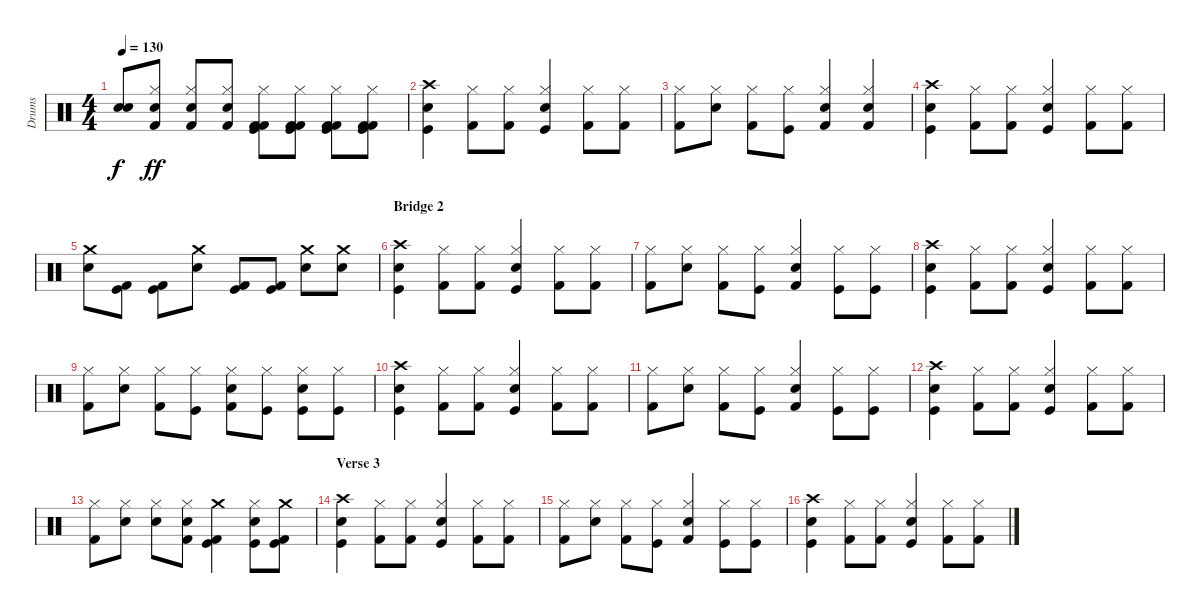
\track ("Drums" "Drums") {instrument percussion}
\staff {score}
\articulation defaults
\ts (4 4)
\tempo 130
\clef neutral
\ks c
("Snare (hit)"{t} "Snare (hit)"{t}).8{dy f} ("Hi-Hat (closed)" "Snare (hit) 2" "Kick (hit) 2").8{dy ff} ("Hi-Hat (closed)" "Snare (hit) 2" "Kick (hit) 2").8 ("Hi-Hat (closed)" "Snare (hit) 2" "Kick (hit) 2").8 ("Hi-Hat (closed)" "Kick (hit) 2" "Kick (hit) 2" "Kick (hit)").8 ("Hi-Hat (closed)" "Kick (hit) 2" "Kick (hit) 2" "Kick (hit)").8 ("Hi-Hat (closed)" "Kick (hit) 2" "Kick (hit) 2" "Kick (hit)").8 ("Hi-Hat (closed)" "Kick (hit) 2" "Kick (hit) 2" "Kick (hit)").8 |
("Crash high (hit)" "Snare (hit) 2" "Kick (hit)").4 ("Hi-Hat (closed)" "Kick (hit) 2").8 ("Hi-Hat (closed)" "Kick (hit) 2").8 ("Hi-Hat (closed)" "Snare (hit) 2" "Kick (hit)").4 ("Hi-Hat (closed)" "Kick (hit) 2").8 ("Hi-Hat (closed)" "Kick (hit) 2").8 |
("Hi-Hat (closed)" "Kick (hit) 2").8 ("Hi-Hat (closed)" "Snare (hit) 2").8 ("Hi-Hat (closed)" "Kick (hit) 2").8 ("Hi-Hat (closed)" "Kick (hit)").8 ("Hi-Hat (closed)" "Kick (hit) 2" "Snare (hit) 2").4 ("Hi-Hat (closed)" "Kick (hit) 2" "Snare (hit) 2").4 |
("Crash high (hit)" "Snare (hit) 2" "Kick (hit)").4 ("Hi-Hat (closed)" "Kick (hit) 2").8 ("Hi-Hat (closed)" "Kick (hit) 2").8 ("Hi-Hat (closed)" "Snare (hit) 2" "Kick (hit)").4 ("Hi-Hat (closed)" "Kick (hit) 2").8 ("Hi-Hat (closed)" "Kick (hit) 2").8 |
("Crash medium (hit)" "Snare (hit) 2").8 ("Kick (hit) 2" "Kick (hit)").8 ("Kick (hit) 2" "Kick (hit)").8 ("Crash medium (hit)" "Snare (hit) 2").8 ("Kick (hit) 2" "Kick (hit)").8 ("Kick (hit) 2" "Kick (hit)").8 ("Crash medium (hit)" "Snare (hit) 2").8 ("Crash medium (hit)" "Snare (hit) 2").8 |
\section ("" "Bridge 2")
("Crash high (hit)" "Snare (hit) 2" "Kick (hit)").4 ("Hi-Hat (closed)" "Kick (hit) 2").8 ("Hi-Hat (closed)" "Kick (hit) 2").8 ("Hi-Hat (closed)" "Snare (hit) 2" "Kick (hit)").4 ("Hi-Hat (closed)" "Kick (hit) 2").8 ("Hi-Hat (closed)" "Kick (hit) 2").8 |
("Hi-Hat (closed)" "Kick (hit) 2").8 ("Hi-Hat (closed)" "Snare (hit) 2").8 ("Hi-Hat (closed)" "Kick (hit) 2").8 ("Hi-Hat (closed)" "Kick (hit)").8 ("Hi-Hat (closed)" "Kick (hit) 2" "Snare (hit) 2").4 ("Hi-Hat (closed)" "Kick (hit)").8 ("Hi-Hat (closed)" "Kick (hit)").8 |
("Crash high (hit)" "Snare (hit) 2" "Kick (hit)").4 ("Hi-Hat (closed)" "Kick (hit) 2").8 ("Hi-Hat (closed)" "Kick (hit) 2").8 ("Hi-Hat (closed)" "Snare (hit) 2" "Kick (hit)").4 ("Hi-Hat (closed)" "Kick (hit) 2").8 ("Hi-Hat (closed)" "Kick (hit) 2").8 |
("Hi-Hat (closed)" "Kick (hit) 2").8 ("Hi-Hat (closed)" "Snare (hit) 2").8 ("Hi-Hat (closed)" "Kick (hit) 2").8 ("Hi-Hat (closed)" "Kick (hit)").8 ("Hi-Hat (closed)" "Kick (hit) 2" "Snare (hit) 2").8 ("Hi-Hat (closed)" "Kick (hit)").8 ("Hi-Hat (closed)" "Kick (hit)" "Snare (hit) 2").8 ("Hi-Hat (closed)" "Kick (hit)").8 |
("Crash high (hit)" "Snare (hit) 2" "Kick (hit)").4 ("Hi-Hat (closed)" "Kick (hit) 2").8 ("Hi-Hat (closed)" "Kick (hit) 2").8 ("Hi-Hat (closed)" "Snare (hit) 2" "Kick (hit)").4 ("Hi-Hat (closed)" "Kick (hit) 2").8 ("Hi-Hat (closed)" "Kick (hit) 2").8 |
("Hi-Hat (closed)" "Kick (hit) 2").8 ("Hi-Hat (closed)" "Snare (hit) 2").8 ("Hi-Hat (closed)" "Kick (hit) 2").8 ("Hi-Hat (closed)" "Kick (hit)").8 ("Hi-Hat (closed)" "Kick (hit) 2" "Snare (hit) 2").4 ("Hi-Hat (closed)" "Kick (hit)").8 ("Hi-Hat (closed)" "Kick (hit)").8 |
("Crash high (hit)" "Snare (hit) 2" "Kick (hit)").4 ("Hi-Hat (closed)" "Kick (hit) 2").8 ("Hi-Hat (closed)" "Kick (hit) 2").8 ("Hi-Hat (closed)" "Snare (hit) 2" "Kick (hit)").4 ("Hi-Hat (closed)" "Kick (hit) 2").8 ("Hi-Hat (closed)" "Kick (hit) 2").8 |
("Hi-Hat (closed)" "Kick (hit) 2").8 ("Hi-Hat (closed)" "Snare (hit) 2").8 ("Hi-Hat (closed)" "Snare (hit) 2").8 ("Hi-Hat (closed)" "Kick (hit) 2" "Snare (hit) 2").8 ("Crash medium (hit)" "Kick (hit)" "Kick (hit) 2").4 ("Hi-Hat (closed)" "Kick (hit)" "Snare (hit) 2").8 ("Crash medium (hit)" "Kick (hit)" "Kick (hit) 2").8 |
\section ("" "Verse 3")
("Crash high (hit)" "Snare (hit) 2" "Kick (hit)").4 ("Hi-Hat (closed)" "Kick (hit) 2").8 ("Hi-Hat (closed)" "Kick (hit) 2").8 ("Hi-Hat (closed)" "Snare (hit) 2" "Kick (hit)").4 ("Hi-Hat (closed)" "Kick (hit) 2").8 ("Hi-Hat (closed)" "Kick (hit) 2").8 |
("Hi-Hat (closed)" "Kick (hit) 2").8 ("Hi-Hat (closed)" "Snare (hit) 2").8 ("Hi-Hat (closed)" "Kick (hit) 2").8 ("Hi-Hat (closed)" "Kick (hit)").8 ("Hi-Hat (closed)" "Kick (hit) 2" "Snare (hit) 2").4 ("Hi-Hat (closed)" "Kick (hit)").8 ("Hi-Hat (closed)" "Kick (hit)").8 |
("Crash high (hit)" "Snare (hit) 2" "Kick (hit)").4 ("Hi-Hat (closed)" "Kick (hit) 2").8 ("Hi-Hat (closed)" "Kick (hit) 2").8 ("Hi-Hat (closed)" "Snare (hit) 2" "Kick (hit)").4 ("Hi-Hat (closed)" "Kick (hit) 2").8 ("Hi-Hat (closed)" "Kick (hit) 2").8
